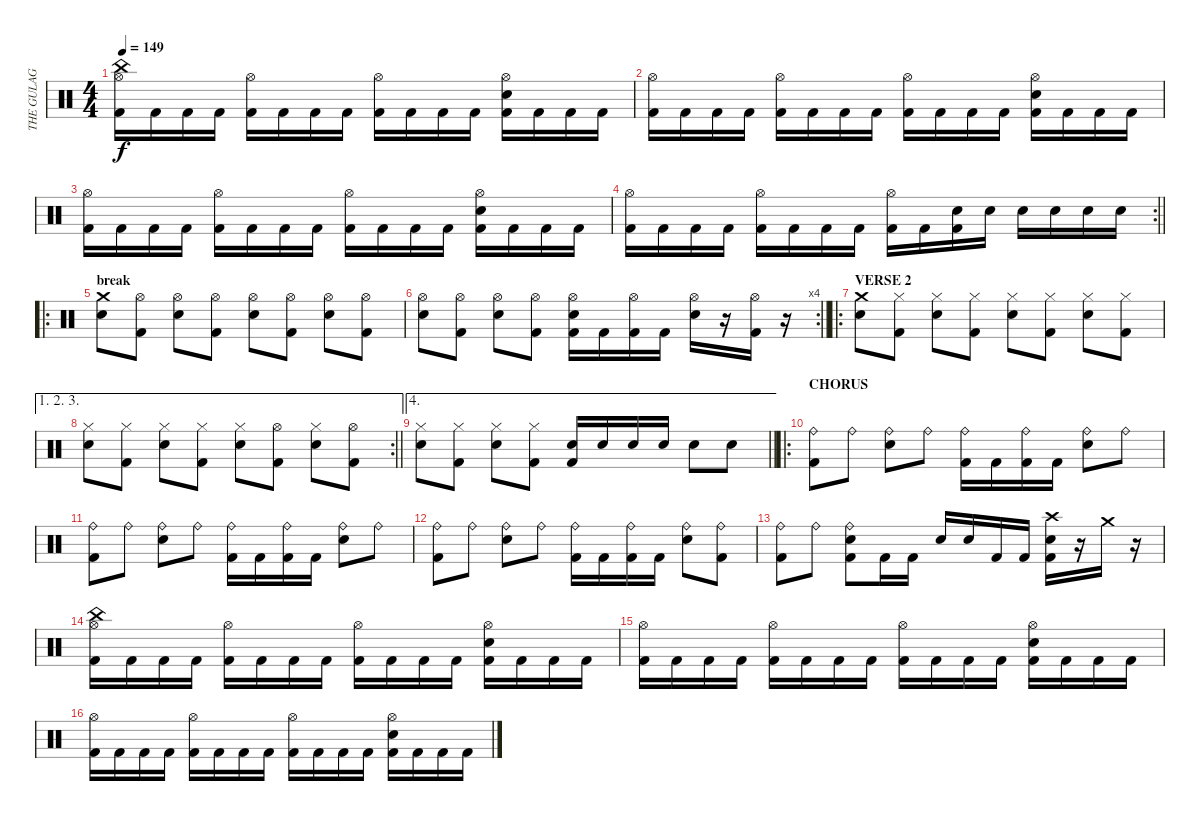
\track ("THE GULAG" "THE GULAG") {instrument percussion}
\staff {score}
\articulation defaults
\ts (4 4)
\tempo 149
\clef neutral
\ks c
("China (hit)" "Hi-Hat (open)" "Kick (hit) 2").16{dy f} "Kick (hit) 2".16 "Kick (hit) 2".16 "Kick (hit) 2".16 ("Hi-Hat (open)" "Kick (hit) 2").16 "Kick (hit) 2".16 "Kick (hit) 2".16 "Kick (hit) 2".16 ("Hi-Hat (open)" "Kick (hit) 2").16 "Kick (hit) 2".16 "Kick (hit) 2".16 "Kick (hit) 2".16 ("Hi-Hat (open)" "Snare (hit) 2" "Kick (hit) 2").16 "Kick (hit) 2".16 "Kick (hit) 2".16 "Kick (hit) 2".16 |
("Hi-Hat (open)" "Kick (hit) 2").16 "Kick (hit) 2".16 "Kick (hit) 2".16 "Kick (hit) 2".16 ("Hi-Hat (open)" "Kick (hit) 2").16 "Kick (hit) 2".16 "Kick (hit) 2".16 "Kick (hit) 2".16 ("Hi-Hat (open)" "Kick (hit) 2").16 "Kick (hit) 2".16 "Kick (hit) 2".16 "Kick (hit) 2".16 ("Hi-Hat (open)" "Snare (hit) 2" "Kick (hit) 2").16 "Kick (hit) 2".16 "Kick (hit) 2".16 "Kick (hit) 2".16 |
("Hi-Hat (open)" "Kick (hit) 2").16 "Kick (hit) 2".16 "Kick (hit) 2".16 "Kick (hit) 2".16 ("Hi-Hat (open)" "Kick (hit) 2").16 "Kick (hit) 2".16 "Kick (hit) 2".16 "Kick (hit) 2".16 ("Hi-Hat (open)" "Kick (hit) 2").16 "Kick (hit) 2".16 "Kick (hit) 2".16 "Kick (hit) 2".16 ("Hi-Hat (open)" "Snare (hit) 2" "Kick (hit) 2").16 "Kick (hit) 2".16 "Kick (hit) 2".16 "Kick (hit) 2".16 |
\rc 2
\barLineRight lightlight
("Hi-Hat (open)" "Kick (hit) 2").16 "Kick (hit) 2".16 "Kick (hit) 2".16 "Kick (hit) 2".16 ("Hi-Hat (open)" "Kick (hit) 2").16 "Kick (hit) 2".16 "Kick (hit) 2".16 "Kick (hit) 2".16 ("Hi-Hat (open)" "Kick (hit) 2").16 "Kick (hit) 2".16 ("Snare (hit) 2" "Kick (hit) 2").16 "Snare (hit) 2".16 "Snare (hit) 2".16 "Snare (hit) 2".16 "Snare (hit) 2".16 "Snare (hit) 2".16 |
\ro
\section ("" "break")
("Crash medium (hit)" "Snare (hit) 2").8 ("Hi-Hat (open)" "Kick (hit) 2").8 ("Hi-Hat (open)" "Snare (hit) 2").8 ("Hi-Hat (open)" "Kick (hit) 2").8 ("Hi-Hat (open)" "Snare (hit) 2").8 ("Hi-Hat (open)" "Kick (hit) 2").8 ("Hi-Hat (open)" "Snare (hit) 2").8 ("Hi-Hat (open)" "Kick (hit) 2").8 |
\rc 4
\barLineRight lightlight
("Hi-Hat (open)" "Snare (hit) 2").8 ("Hi-Hat (open)" "Kick (hit) 2").8 ("Hi-Hat (open)" "Snare (hit) 2").8 ("Hi-Hat (open)" "Kick (hit) 2").8 ("Hi-Hat (open)" "Snare (hit) 2" "Kick (hit) 2").16 "Kick (hit) 2".16 ("Hi-Hat (open)" "Kick (hit) 2").16 "Kick (hit) 2".16 ("Hi-Hat (open)" "Snare (hit) 2").16 r.16 ("Hi-Hat (open)" "Kick (hit) 2").16 r.16 |
\ro
\section ("" "VERSE 2")
("Crash medium (hit)" "Snare (hit) 2").8 ("Hi-Hat (closed)" "Kick (hit) 2").8 ("Hi-Hat (closed)" "Snare (hit) 2").8 ("Hi-Hat (closed)" "Kick (hit) 2").8 ("Hi-Hat (closed)" "Snare (hit) 2").8 ("Hi-Hat (closed)" "Kick (hit) 2").8 ("Hi-Hat (closed)" "Snare (hit) 2").8 ("Hi-Hat (closed)" "Kick (hit) 2").8 |
\ae (1 2 3)
\rc 2
\barLineRight lightlight
("Hi-Hat (closed)" "Snare (hit) 2").8 ("Hi-Hat (closed)" "Kick (hit) 2").8 ("Hi-Hat (closed)" "Snare (hit) 2").8 ("Hi-Hat (closed)" "Kick (hit) 2").8 ("Hi-Hat (closed)" "Snare (hit) 2").8 ("Hi-Hat (open)" "Kick (hit) 2").8 ("Hi-Hat (closed)" "Snare (hit) 2").8 ("Hi-Hat (open)" "Kick (hit) 2").8 |
\ae 4
\barLineRight lightlight
("Hi-Hat (closed)" "Snare (hit) 2").8 ("Hi-Hat (closed)" "Kick (hit) 2").8 ("Hi-Hat (closed)" "Snare (hit) 2").8 ("Hi-Hat (closed)" "Kick (hit) 2").8 ("Snare (hit) 2" "Kick (hit) 2").16 "Snare (hit) 2".16 "Snare (hit) 2".16 "Snare (hit) 2".16 "Snare (hit) 2".8 "Snare (hit) 2".8 |
\ro
\section ("" "CHORUS")
("Ride (bell)" "Kick (hit) 2").8 "Ride (bell)".8 ("Ride (bell)" "Snare (hit) 2").8 "Ride (bell)".8 ("Ride (bell)" "Kick (hit) 2").16 "Kick (hit) 2".16 ("Ride (bell)" "Kick (hit) 2").16 "Kick (hit) 2".16 ("Ride (bell)" "Snare (hit) 2").8 "Ride (bell)".8 |
("Ride (bell)" "Kick (hit) 2").8 "Ride (bell)".8 ("Ride (bell)" "Snare (hit) 2").8 "Ride (bell)".8 ("Ride (bell)" "Kick (hit) 2").16 "Kick (hit) 2".16 ("Ride (bell)" "Kick (hit) 2").16 "Kick (hit) 2".16 ("Ride (bell)" "Snare (hit) 2").8 "Ride (bell)".8 |
("Ride (bell)" "Kick (hit) 2").8 "Ride (bell)".8 ("Ride (bell)" "Snare (hit) 2").8 "Ride (bell)".8 ("Ride (bell)" "Kick (hit) 2").16 "Kick (hit) 2".16 ("Ride (bell)" "Kick (hit) 2").16 "Kick (hit) 2".16 ("Ride (bell)" "Snare (hit) 2").8 ("Ride (bell)" "Kick (hit) 2").8 |
("Ride (bell)" "Kick (hit) 2").8 "Ride (bell)".8 ("Ride (bell)" "Snare (hit) 2" "Kick (hit) 2").8 "Kick (hit) 2".16 "Kick (hit) 2".16 "Snare (hit) 2".16 "Snare (hit) 2".16 "Kick (hit) 2".16 "Kick (hit) 2".16 ("Crash high (hit)" "Snare (hit) 2" "Kick (hit) 2").16 r.16 "Crash medium (hit)".16 r.16 |
("China (hit)" "Hi-Hat (open)" "Kick (hit) 2").16 "Kick (hit) 2".16 "Kick (hit) 2".16 "Kick (hit) 2".16 ("Hi-Hat (open)" "Kick (hit) 2").16 "Kick (hit) 2".16 "Kick (hit) 2".16 "Kick (hit) 2".16 ("Hi-Hat (open)" "Kick (hit) 2").16 "Kick (hit) 2".16 "Kick (hit) 2".16 "Kick (hit) 2".16 ("Hi-Hat (open)" "Snare (hit) 2" "Kick (hit) 2").16 "Kick (hit) 2".16 "Kick (hit) 2".16 "Kick (hit) 2".16 |
("Hi-Hat (open)" "Kick (hit) 2").16 "Kick (hit) 2".16 "Kick (hit) 2".16 "Kick (hit) 2".16 ("Hi-Hat (open)" "Kick (hit) 2").16 "Kick (hit) 2".16 "Kick (hit) 2".16 "Kick (hit) 2".16 ("Hi-Hat (open)" "Kick (hit) 2").16 "Kick (hit) 2".16 "Kick (hit) 2".16 "Kick (hit) 2".16 ("Hi-Hat (open)" "Snare (hit) 2" "Kick (hit) 2").16 "Kick (hit) 2".16 "Kick (hit) 2".16 "Kick (hit) 2".16 |
("Hi-Hat (open)" "Kick (hit) 2").16 "Kick (hit) 2".16 "Kick (hit) 2".16 "Kick (hit) 2".16 ("Hi-Hat (open)" "Kick (hit) 2").16 "Kick (hit) 2".16 "Kick (hit) 2".16 "Kick (hit) 2".16 ("Hi-Hat (open)" "Kick (hit) 2").16 "Kick (hit) 2".16 "Kick (hit) 2".16 "Kick (hit) 2".16 ("Hi-Hat (open)" "Snare (hit) 2" "Kick (hit) 2").16 "Kick (hit) 2".16 "Kick (hit) 2".16 "Kick (hit) 2".16
